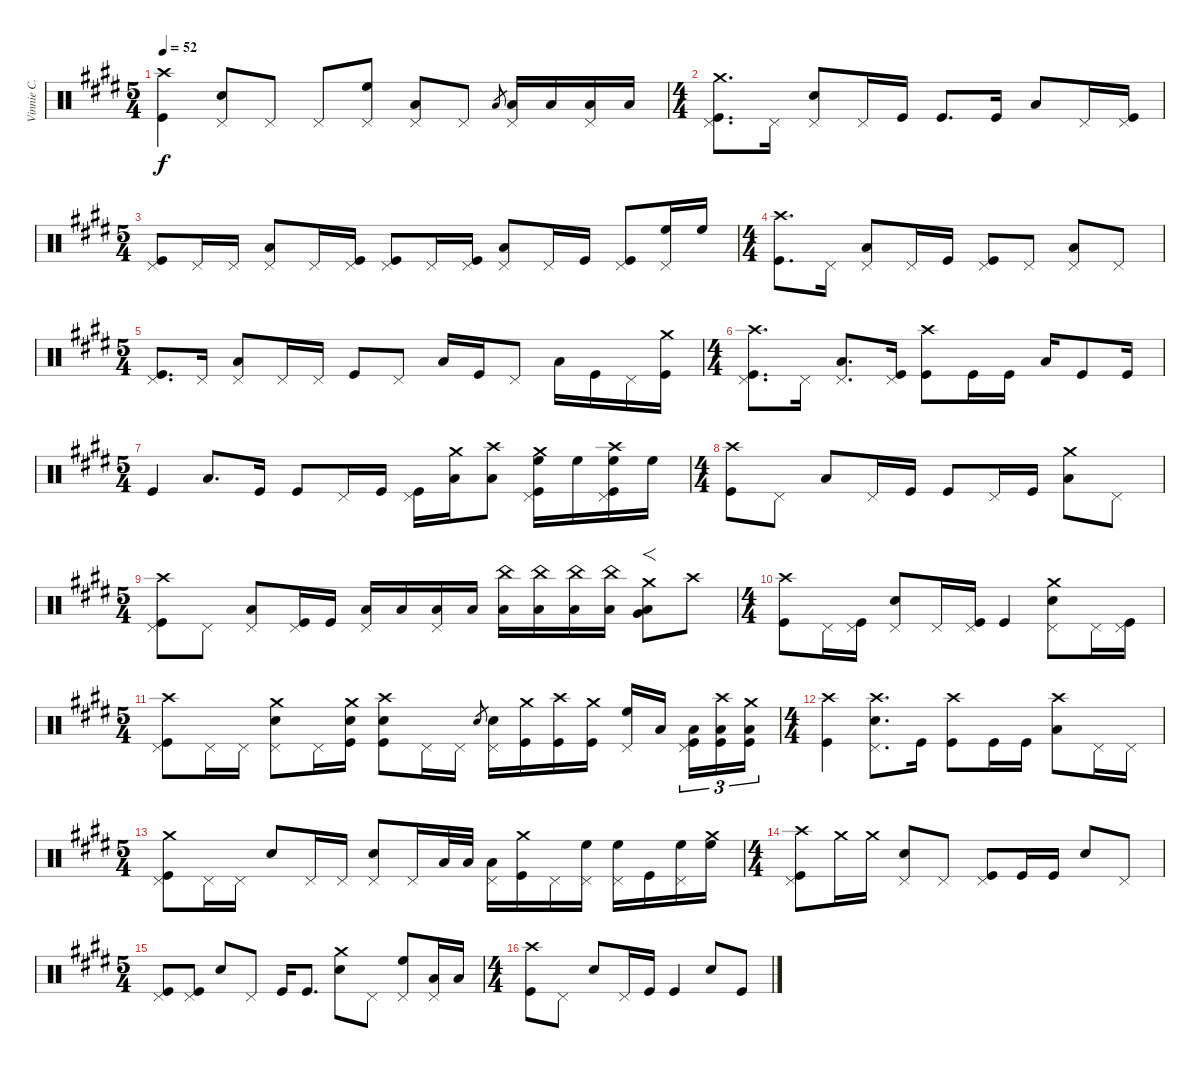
\track ("Vinnie C." "Vinnie C.") {instrument percussion}
\staff {score}
\articulation defaults
\ts (5 4)
\tempo 52
\clef neutral
\ks e
("Crash high (hit)" "Kick (hit)").4{dy f} ("Pedal Hi-Hat (hit)" "Electric Snare (hit)").8 "Pedal Hi-Hat (hit)".8 "Pedal Hi-Hat (hit)".8 ("Pedal Hi-Hat (hit)" "High Floor Tom (hit)").8 ("Pedal Hi-Hat (hit)" "Low Tom (hit)").8 "Pedal Hi-Hat (hit)".8 "Low Tom (hit)".8{gr} ("Pedal Hi-Hat (hit)" "Low Tom (hit)").16 "Low Tom (hit)".16 ("Pedal Hi-Hat (hit)" "Low Tom (hit)").16 "Low Tom (hit)".16 |
\ts (4 4)
("Crash medium (hit)" "Pedal Hi-Hat (hit)" "Kick (hit)").8{d} "Pedal Hi-Hat (hit)".16 ("Pedal Hi-Hat (hit)" "Electric Snare (hit)").8 "Pedal Hi-Hat (hit)".16 "Kick (hit)".16 "Kick (hit)".8{d} "Kick (hit)".16 "Low Tom (hit)".8 "Pedal Hi-Hat (hit)".16 ("Pedal Hi-Hat (hit)" "Kick (hit)").16 |
\ts (5 4)
("Pedal Hi-Hat (hit)" "Kick (hit)").8 "Pedal Hi-Hat (hit)".16 "Pedal Hi-Hat (hit)".16 ("Pedal Hi-Hat (hit)" "Low Tom (hit)").8 "Pedal Hi-Hat (hit)".16 ("Pedal Hi-Hat (hit)" "Kick (hit)").16 ("Pedal Hi-Hat (hit)" "Kick (hit)").8 "Pedal Hi-Hat (hit)".16 ("Pedal Hi-Hat (hit)" "Kick (hit)").16 ("Pedal Hi-Hat (hit)" "Low Tom (hit)").8 "Pedal Hi-Hat (hit)".16 "Kick (hit)".16 ("Pedal Hi-Hat (hit)" "Kick (hit)").8 ("Pedal Hi-Hat (hit)" "High Floor Tom (hit)").16 "High Floor Tom (hit)".16 |
\ts (4 4)
("Crash high (hit)" "Kick (hit)").8{d} "Pedal Hi-Hat (hit)".16 ("Pedal Hi-Hat (hit)" "Low Tom (hit)").8 "Pedal Hi-Hat (hit)".16 "Kick (hit)".16 ("Pedal Hi-Hat (hit)" "Kick (hit)").8 "Pedal Hi-Hat (hit)".8 ("Pedal Hi-Hat (hit)" "Low Tom (hit)").8 "Pedal Hi-Hat (hit)".8 |
\ts (5 4)
("Pedal Hi-Hat (hit)" "Kick (hit)").8{d} "Pedal Hi-Hat (hit)".16 ("Pedal Hi-Hat (hit)" "Low Tom (hit)").8 "Pedal Hi-Hat (hit)".16 "Pedal Hi-Hat (hit)".16 "Kick (hit)".8 "Pedal Hi-Hat (hit)".8 "Low Tom (hit)".16 "Kick (hit)".16 "Pedal Hi-Hat (hit)".8 "Low Tom (hit)".16 "Kick (hit)".16 "Pedal Hi-Hat (hit)".16 ("Crash medium (hit)" "Kick (hit)").16 |
\ts (4 4)
("Pedal Hi-Hat (hit)" "Crash high (hit)" "Kick (hit)").8{d} "Pedal Hi-Hat (hit)".16 ("Pedal Hi-Hat (hit)" "Low Tom (hit)").8{d} ("Pedal Hi-Hat (hit)" "Kick (hit)").16 ("Crash high (hit)" "Kick (hit)").8 "Kick (hit)".16 "Kick (hit)".16 "Low Tom (hit)".16 "Kick (hit)".8 "Kick (hit)".16 |
\ts (5 4)
"Kick (hit)".4 "Low Tom (hit)".8{d} "Kick (hit)".16 "Kick (hit)".8 "Pedal Hi-Hat (hit)".16 "Kick (hit)".16 ("Pedal Hi-Hat (hit)" "Kick (hit)").16 ("Crash medium (hit)" "Low Tom (hit)").16 ("Crash high (hit)" "Low Tom (hit)").8 ("Crash medium (hit)" "Pedal Hi-Hat (hit)" "High Floor Tom (hit)" "Kick (hit)").16 "High Floor Tom (hit)".16 ("Crash high (hit)" "Pedal Hi-Hat (hit)" "High Floor Tom (hit)" "Kick (hit)").16 "High Floor Tom (hit)".16 |
\ts (4 4)
("Crash high (hit)" "Kick (hit)").8 "Pedal Hi-Hat (hit)".8 "Low Tom (hit)".8 "Pedal Hi-Hat (hit)".16 "Kick (hit)".16 "Kick (hit)".8 "Pedal Hi-Hat (hit)".16 "Kick (hit)".16 ("Crash medium (hit)" "Low Tom (hit)").8 "Pedal Hi-Hat (hit)".8 |
\ts (5 4)
("Crash high (hit)" "Pedal Hi-Hat (hit)" "Kick (hit)").8 "Pedal Hi-Hat (hit)".8 ("Pedal Hi-Hat (hit)" "Low Tom (hit)").8 ("Pedal Hi-Hat (hit)" "Kick (hit)").16 "Kick (hit)".16 ("Pedal Hi-Hat (hit)" "Low Tom (hit)").16 "Low Tom (hit)".16 ("Pedal Hi-Hat (hit)" "Low Tom (hit)").16 "Low Tom (hit)".16 ("China (hit)" "Low Tom (hit)").16 ("China (hit)" "Low Tom (hit)").16 ("China (hit)" "Low Tom (hit)").16 ("China (hit)" "Low Tom (hit)").16 ("Crash medium (hit)" "Low Tom (hit)" "Very Low Tom (hit)"{tr (43 64)}).8{f} "Crash high (hit)".8 |
\ts (4 4)
("Crash high (hit)" "Kick (hit)").8 "Pedal Hi-Hat (hit)".16 ("Pedal Hi-Hat (hit)" "Kick (hit)").16 ("Pedal Hi-Hat (hit)" "Electric Snare (hit)").8 "Pedal Hi-Hat (hit)".16 ("Pedal Hi-Hat (hit)" "Kick (hit)").16 "Kick (hit)".4 ("Crash medium (hit)" "Pedal Hi-Hat (hit)" "Electric Snare (hit)").8 "Pedal Hi-Hat (hit)".16 ("Pedal Hi-Hat (hit)" "Kick (hit)").16 |
\ts (5 4)
("Crash high (hit)" "Pedal Hi-Hat (hit)" "Kick (hit)").8 "Pedal Hi-Hat (hit)".16 "Pedal Hi-Hat (hit)".16 ("Crash medium (hit)" "Pedal Hi-Hat (hit)" "Electric Snare (hit)").8 "Pedal Hi-Hat (hit)".16 ("Crash medium (hit)" "Electric Snare (hit)" "Kick (hit)").16 ("Crash high (hit)" "Electric Snare (hit)" "Kick (hit)").8 "Pedal Hi-Hat (hit)".16 "Pedal Hi-Hat (hit)".16 "Electric Snare (hit)".8{gr} ("Pedal Hi-Hat (hit)" "Electric Snare (hit)").16 ("Crash medium (hit)" "Kick (hit)").16 ("Crash high (hit)" "Kick (hit)").16 ("Crash medium (hit)" "Kick (hit)").16 ("Pedal Hi-Hat (hit)" "High Floor Tom (hit)").16 "Low Tom (hit)".16 ("Pedal Hi-Hat (hit)" "Low Tom (hit)" "Kick (hit)").16{tu (3 2)} ("Crash high (hit)" "Low Tom (hit)" "Kick (hit)").16{tu (3 2)} ("Crash medium (hit)" "Low Tom (hit)" "Kick (hit)").16{tu (3 2)} |
\ts (4 4)
("Crash high (hit)" "Kick (hit)").4 ("Crash high (hit)" "Pedal Hi-Hat (hit)" "Electric Snare (hit)").8{d} "Kick (hit)".16 ("Crash high (hit)" "Kick (hit)").8 "Kick (hit)".16 "Kick (hit)".16 ("Crash high (hit)" "Low Tom (hit)").8 "Pedal Hi-Hat (hit)".16 "Pedal Hi-Hat (hit)".16 |
\ts (5 4)
("Crash medium (hit)" "Pedal Hi-Hat (hit)" "Kick (hit)").8 "Pedal Hi-Hat (hit)".16 "Pedal Hi-Hat (hit)".16 "Electric Snare (hit)".8 "Pedal Hi-Hat (hit)".16 "Pedal Hi-Hat (hit)".16 ("Pedal Hi-Hat (hit)" "Electric Snare (hit)").8 "Pedal Hi-Hat (hit)".16 "Low Tom (hit)".32 "Low Tom (hit)".32 ("Pedal Hi-Hat (hit)" "Low Tom (hit)").16 ("Crash medium (hit)" "Kick (hit)").16 "Pedal Hi-Hat (hit)".16 ("Pedal Hi-Hat (hit)" "High Floor Tom (hit)").16 ("Pedal Hi-Hat (hit)" "High Floor Tom (hit)").16 "Kick (hit)".16 ("Pedal Hi-Hat (hit)" "High Floor Tom (hit)").16 ("Crash medium (hit)" "High Floor Tom (hit)").16 |
\ts (4 4)
("Crash high (hit)" "Pedal Hi-Hat (hit)" "Kick (hit)").8 "Crash medium (hit)".16 "Crash medium (hit)".16 ("Pedal Hi-Hat (hit)" "Electric Snare (hit)").8 "Pedal Hi-Hat (hit)".8 ("Pedal Hi-Hat (hit)" "Kick (hit)").8 "Kick (hit)".16 "Kick (hit)".16 "Electric Snare (hit)".8 "Pedal Hi-Hat (hit)".8 |
\ts (5 4)
("Pedal Hi-Hat (hit)" "Kick (hit)").8 ("Pedal Hi-Hat (hit)" "Kick (hit)").8 "Electric Snare (hit)".8 "Pedal Hi-Hat (hit)".8 "Kick (hit)".16 "Kick (hit)".8{d} ("Crash medium (hit)" "Electric Snare (hit)").8 "Pedal Hi-Hat (hit)".8 ("Pedal Hi-Hat (hit)" "High Floor Tom (hit)").8 ("Pedal Hi-Hat (hit)" "Low Tom (hit)").16 "Low Tom (hit)".16 |
\ts (4 4)
("Crash high (hit)" "Kick (hit)").8 "Pedal Hi-Hat (hit)".8 "Electric Snare (hit)".8 "Pedal Hi-Hat (hit)".16 "Kick (hit)".16 "Kick (hit)".4 "Electric Snare (hit)".8 "Kick (hit)".8
